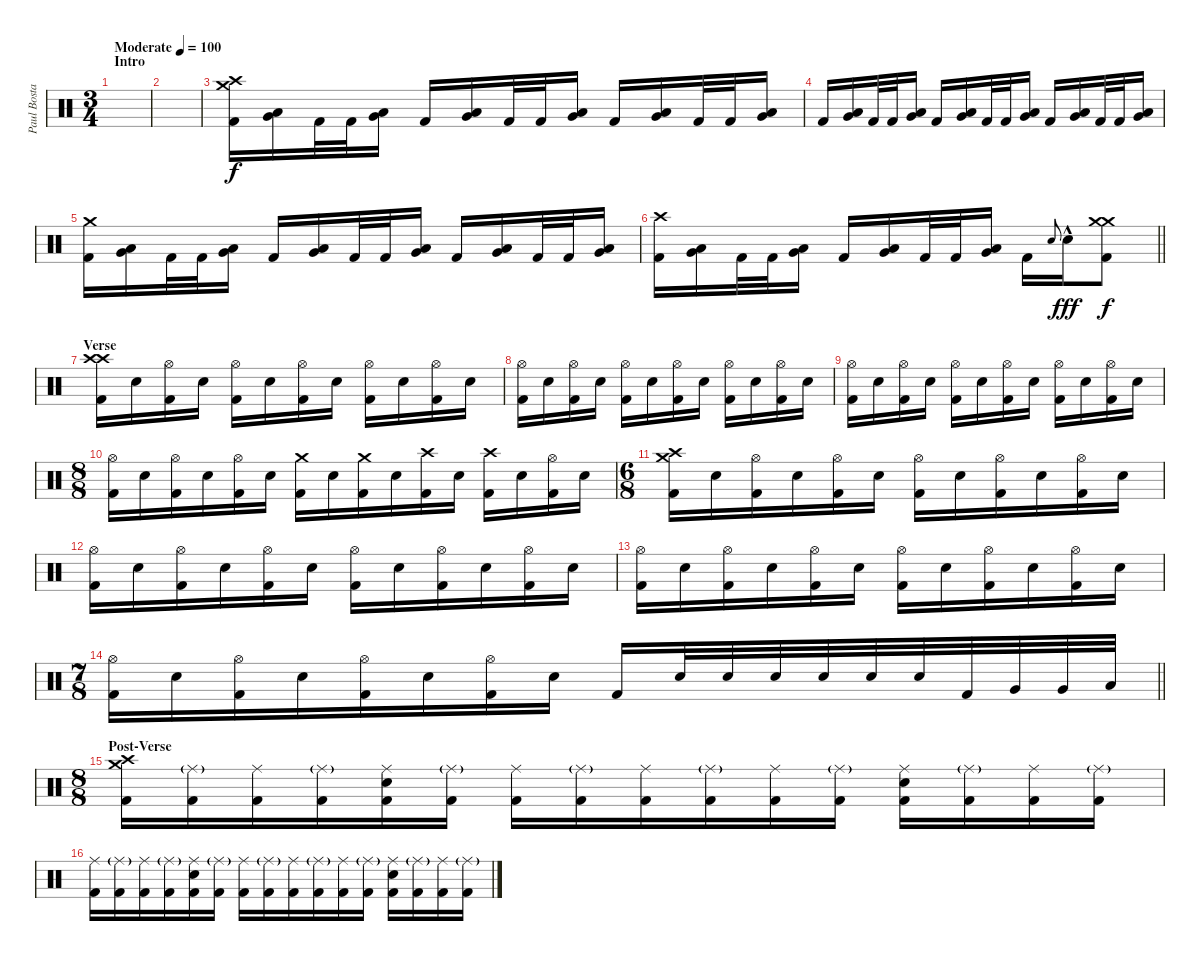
\track ("Paul Bostaph (Last Album 2 Feature Paul)" "Paul Bosta") {instrument percussion}
\staff {score}
\articulation defaults
\ts (3 4)
\section ("" "Intro")
\tempo (100 "Moderate")
\clef neutral
\ks c
|
|
("Crash high (hit)" "Crash medium (hit)" "Kick (hit) 2").16 ("Very Low Tom (hit)" "Low Floor Tom (hit)").16 "Kick (hit) 2".32 "Kick (hit) 2".32 ("Very Low Tom (hit)" "Low Floor Tom (hit)").16 "Kick (hit) 2".16 ("Very Low Tom (hit)" "Low Floor Tom (hit)").16 "Kick (hit) 2".32 "Kick (hit) 2".32 ("Very Low Tom (hit)" "Low Floor Tom (hit)").16 "Kick (hit) 2".16 ("Very Low Tom (hit)" "Low Floor Tom (hit)").16 "Kick (hit) 2".32 "Kick (hit) 2".32 ("Very Low Tom (hit)" "Low Floor Tom (hit)").16 |
"Kick (hit) 2".16 ("Very Low Tom (hit)" "Low Floor Tom (hit)").16 "Kick (hit) 2".32 "Kick (hit) 2".32 ("Very Low Tom (hit)" "Low Floor Tom (hit)").16 "Kick (hit) 2".16 ("Very Low Tom (hit)" "Low Floor Tom (hit)").16 "Kick (hit) 2".32 "Kick (hit) 2".32 ("Very Low Tom (hit)" "Low Floor Tom (hit)").16 "Kick (hit) 2".16 ("Very Low Tom (hit)" "Low Floor Tom (hit)").16 "Kick (hit) 2".32 "Kick (hit) 2".32 ("Very Low Tom (hit)" "Low Floor Tom (hit)").16 |
("Crash medium (hit)" "Kick (hit) 2").16 ("Very Low Tom (hit)" "Low Floor Tom (hit)").16 "Kick (hit) 2".32 "Kick (hit) 2".32 ("Very Low Tom (hit)" "Low Floor Tom (hit)").16 "Kick (hit) 2".16 ("Very Low Tom (hit)" "Low Floor Tom (hit)").16 "Kick (hit) 2".32 "Kick (hit) 2".32 ("Very Low Tom (hit)" "Low Floor Tom (hit)").16 "Kick (hit) 2".16 ("Very Low Tom (hit)" "Low Floor Tom (hit)").16 "Kick (hit) 2".32 "Kick (hit) 2".32 ("Very Low Tom (hit)" "Low Floor Tom (hit)").16 |
\barLineRight lightlight
("Crash high (hit)" "Kick (hit) 2").16 ("Very Low Tom (hit)" "Low Floor Tom (hit)").16 "Kick (hit) 2".32 "Kick (hit) 2".32 ("Very Low Tom (hit)" "Low Floor Tom (hit)").16 "Kick (hit) 2".16 ("Very Low Tom (hit)" "Low Floor Tom (hit)").16 "Kick (hit) 2".32 "Kick (hit) 2".32 ("Very Low Tom (hit)" "Low Floor Tom (hit)").16 "Kick (hit) 2".16 "Electric Snare (hit)".8{gr onbeat} "Electric Snare (hit)"{hac}.16{dy fff} ("Crash medium (hit)" "Crash medium (hit)" "Kick (hit) 2").8{dy f} |
\section ("" "Verse")
("Crash high (hit)" "Crash high (hit)" "Kick (hit) 2").16 "Electric Snare (hit)".16 ("Hi-Hat (open)" "Kick (hit) 2").16 "Electric Snare (hit)".16 ("Hi-Hat (open)" "Kick (hit) 2").16 "Electric Snare (hit)".16 ("Hi-Hat (open)" "Kick (hit) 2").16 "Electric Snare (hit)".16 ("Hi-Hat (open)" "Kick (hit) 2").16 "Electric Snare (hit)".16 ("Hi-Hat (open)" "Kick (hit) 2").16 "Electric Snare (hit)".16 |
("Hi-Hat (open)" "Kick (hit) 2").16 "Electric Snare (hit)".16 ("Hi-Hat (open)" "Kick (hit) 2").16 "Electric Snare (hit)".16 ("Hi-Hat (open)" "Kick (hit) 2").16 "Electric Snare (hit)".16 ("Hi-Hat (open)" "Kick (hit) 2").16 "Electric Snare (hit)".16 ("Hi-Hat (open)" "Kick (hit) 2").16 "Electric Snare (hit)".16 ("Hi-Hat (open)" "Kick (hit) 2").16 "Electric Snare (hit)".16 |
("Hi-Hat (open)" "Kick (hit) 2").16 "Electric Snare (hit)".16 ("Hi-Hat (open)" "Kick (hit) 2").16 "Electric Snare (hit)".16 ("Hi-Hat (open)" "Kick (hit) 2").16 "Electric Snare (hit)".16 ("Hi-Hat (open)" "Kick (hit) 2").16 "Electric Snare (hit)".16 ("Hi-Hat (open)" "Kick (hit) 2").16 "Electric Snare (hit)".16 ("Hi-Hat (open)" "Kick (hit) 2").16 "Electric Snare (hit)".16 |
\ts (8 8)
("Hi-Hat (open)" "Kick (hit) 2").16 "Electric Snare (hit)".16 ("Hi-Hat (open)" "Kick (hit) 2").16 "Electric Snare (hit)".16 ("Hi-Hat (open)" "Kick (hit) 2").16 "Electric Snare (hit)".16 ("Crash medium (hit)" "Kick (hit) 2").16 "Electric Snare (hit)".16 ("Crash medium (hit)" "Kick (hit) 2").16 "Electric Snare (hit)".16 ("Crash high (hit)" "Kick (hit) 2").16 "Electric Snare (hit)".16 ("Crash high (hit)" "Kick (hit) 2").16 "Electric Snare (hit)".16 ("Hi-Hat (open)" "Kick (hit) 2").16 "Electric Snare (hit)".16 |
\ts (6 8)
("Crash high (hit)" "Crash medium (hit)" "Kick (hit) 2").16 "Electric Snare (hit)".16 ("Hi-Hat (open)" "Kick (hit) 2").16 "Electric Snare (hit)".16 ("Hi-Hat (open)" "Kick (hit) 2").16 "Electric Snare (hit)".16 ("Hi-Hat (open)" "Kick (hit) 2").16 "Electric Snare (hit)".16 ("Hi-Hat (open)" "Kick (hit) 2").16 "Electric Snare (hit)".16 ("Hi-Hat (open)" "Kick (hit) 2").16 "Electric Snare (hit)".16 |
("Hi-Hat (open)" "Kick (hit) 2").16 "Electric Snare (hit)".16 ("Hi-Hat (open)" "Kick (hit) 2").16 "Electric Snare (hit)".16 ("Hi-Hat (open)" "Kick (hit) 2").16 "Electric Snare (hit)".16 ("Hi-Hat (open)" "Kick (hit) 2").16 "Electric Snare (hit)".16 ("Hi-Hat (open)" "Kick (hit) 2").16 "Electric Snare (hit)".16 ("Hi-Hat (open)" "Kick (hit) 2").16 "Electric Snare (hit)".16 |
("Hi-Hat (open)" "Kick (hit) 2").16 "Electric Snare (hit)".16 ("Hi-Hat (open)" "Kick (hit) 2").16 "Electric Snare (hit)".16 ("Hi-Hat (open)" "Kick (hit) 2").16 "Electric Snare (hit)".16 ("Hi-Hat (open)" "Kick (hit) 2").16 "Electric Snare (hit)".16 ("Hi-Hat (open)" "Kick (hit) 2").16 "Electric Snare (hit)".16 ("Hi-Hat (open)" "Kick (hit) 2").16 "Electric Snare (hit)".16 |
\ts (7 8)
\barLineRight lightlight
("Hi-Hat (open)" "Kick (hit) 2").16 "Electric Snare (hit)".16 ("Hi-Hat (open)" "Kick (hit) 2").16 "Electric Snare (hit)".16 ("Hi-Hat (open)" "Kick (hit) 2").16 "Electric Snare (hit)".16 ("Hi-Hat (open)" "Kick (hit) 2").16 "Electric Snare (hit)".16 "Kick (hit) 2".16 "Electric Snare (hit)".32 "Electric Snare (hit)".32 "Electric Snare (hit)".32 "Electric Snare (hit)".32 "Electric Snare (hit)".32 "Electric Snare (hit)".32 "Kick (hit) 2".32 "Very Low Tom (hit)".32 "Very Low Tom (hit)".32 "Low Floor Tom (hit)".32 |
\ts (8 8)
\section ("" "Post-Verse")
("Crash medium (hit)" "Crash high (hit)" "Kick (hit) 2").16 ("Ride (middle)"{g} "Kick (hit) 2").16 ("Ride (middle)" "Kick (hit) 2").16 ("Ride (middle)"{g} "Kick (hit) 2").16 ("Ride (middle)" "Electric Snare (hit)" "Kick (hit) 2").16 ("Ride (middle)"{g} "Kick (hit) 2").16 ("Ride (middle)" "Kick (hit) 2").16 ("Ride (middle)"{g} "Kick (hit) 2").16 ("Ride (middle)" "Kick (hit) 2").16 ("Ride (middle)"{g} "Kick (hit) 2").16 ("Ride (middle)" "Kick (hit) 2").16 ("Ride (middle)"{g} "Kick (hit) 2").16 ("Ride (middle)" "Electric Snare (hit)" "Kick (hit) 2").16 ("Ride (middle)"{g} "Kick (hit) 2").16 ("Ride (middle)" "Kick (hit) 2").16 ("Ride (middle)"{g} "Kick (hit) 2").16 |
("Ride (middle)" "Kick (hit) 2").16 ("Ride (middle)"{g} "Kick (hit) 2").16 ("Ride (middle)" "Kick (hit) 2").16 ("Ride (middle)"{g} "Kick (hit) 2").16 ("Ride (middle)" "Electric Snare (hit)" "Kick (hit) 2").16 ("Ride (middle)"{g} "Kick (hit) 2").16 ("Ride (middle)" "Kick (hit) 2").16 ("Ride (middle)"{g} "Kick (hit) 2").16 ("Ride (middle)" "Kick (hit) 2").16 ("Ride (middle)"{g} "Kick (hit) 2").16 ("Ride (middle)" "Kick (hit) 2").16 ("Ride (middle)"{g} "Kick (hit) 2").16 ("Ride (middle)" "Electric Snare (hit)" "Kick (hit) 2").16 ("Ride (middle)"{g} "Kick (hit) 2").16 ("Ride (middle)" "Kick (hit) 2").16 ("Ride (middle)"{g} "Kick (hit) 2").16
